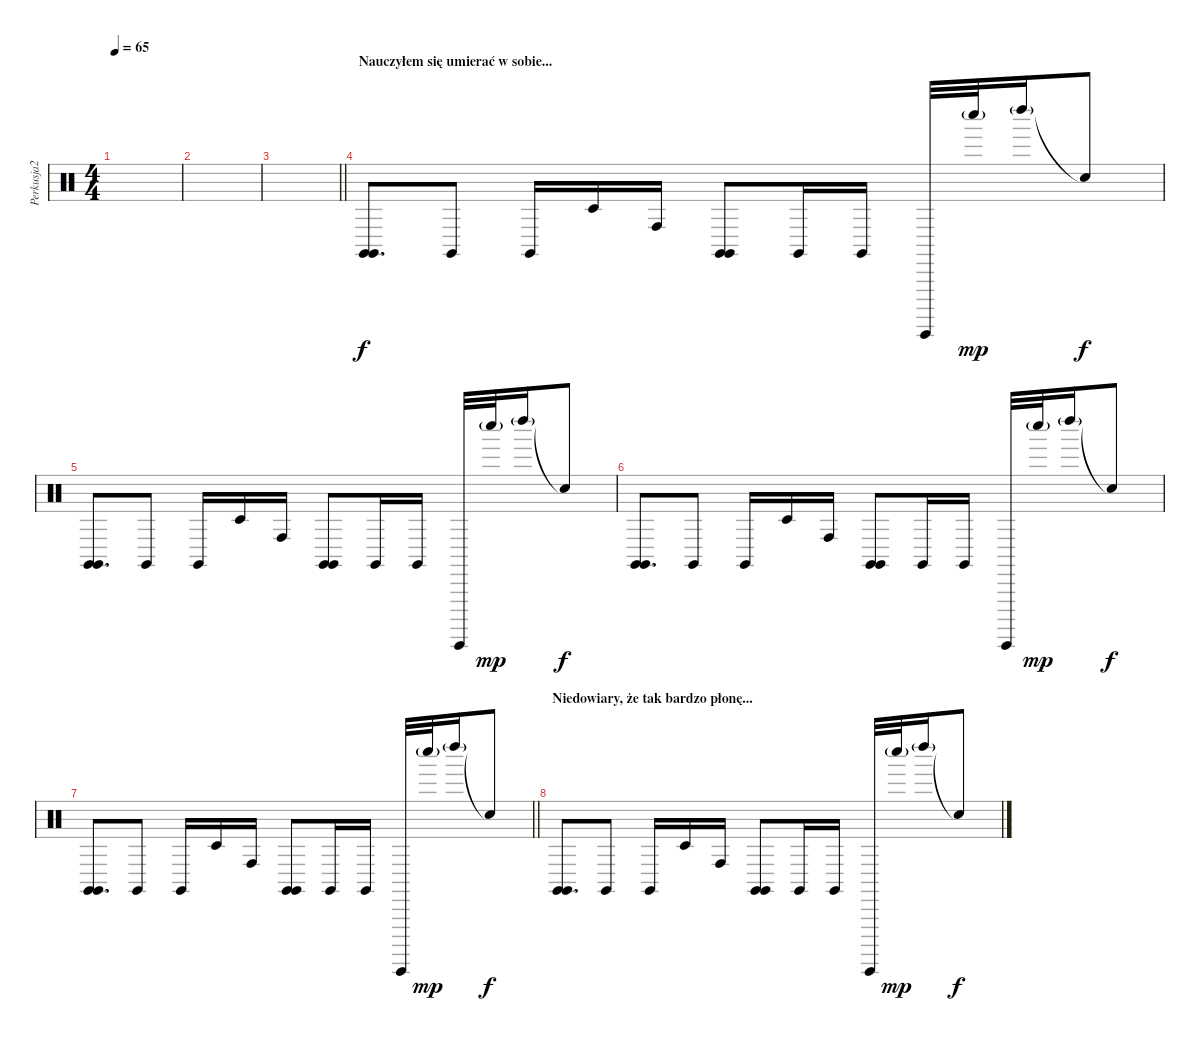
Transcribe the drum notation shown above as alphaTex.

\track ("Perkusja2" "Perkusja2") {instrument percussion}
\staff {score}
\articulation defaults
\ts (4 4)
\tempo 65
\clef neutral
\ks c
|
|
\barLineRight lightlight
|
\section ("" "Nauczyłem się umierać w sobie...")
("Claves (hit)" "Claves (hit)").8{d} "Claves (hit)".8 "Claves (hit)".16 "Timbale low (hit)".16 "Conga high (hit)".16 ("Claves (hit)" "Claves (hit)").8 "Claves (hit)".16 "Claves (hit)".16 "Guiro (hit)".32 "Whistle low (hit)"{g}.32{dy mp} "Left Maraca (hit)"{g}.16 "Snare (hit)"{t}.8{dy f} |
("Claves (hit)" "Claves (hit)").8{d} "Claves (hit)".8 "Claves (hit)".16 "Timbale low (hit)".16 "Conga high (hit)".16 ("Claves (hit)" "Claves (hit)").8 "Claves (hit)".16 "Claves (hit)".16 "Guiro (hit)".32 "Whistle low (hit)"{g}.32{dy mp} "Left Maraca (hit)"{g}.16 "Snare (hit)"{t}.8{dy f} |
("Claves (hit)" "Claves (hit)").8{d} "Claves (hit)".8 "Claves (hit)".16 "Timbale low (hit)".16 "Conga high (hit)".16 ("Claves (hit)" "Claves (hit)").8 "Claves (hit)".16 "Claves (hit)".16 "Guiro (hit)".32 "Whistle low (hit)"{g}.32{dy mp} "Left Maraca (hit)"{g}.16 "Snare (hit)"{t}.8{dy f} |
\barLineRight lightlight
("Claves (hit)" "Claves (hit)").8{d} "Claves (hit)".8 "Claves (hit)".16 "Timbale low (hit)".16 "Conga high (hit)".16 ("Claves (hit)" "Claves (hit)").8 "Claves (hit)".16 "Claves (hit)".16 "Guiro (hit)".32 "Whistle low (hit)"{g}.32{dy mp} "Left Maraca (hit)"{g}.16 "Snare (hit)"{t}.8{dy f} |
\section ("" "Niedowiary, że tak bardzo płonę...")
("Claves (hit)" "Claves (hit)").8{d} "Claves (hit)".8 "Claves (hit)".16 "Timbale low (hit)".16 "Conga high (hit)".16 ("Claves (hit)" "Claves (hit)").8 "Claves (hit)".16 "Claves (hit)".16 "Guiro (hit)".32 "Whistle low (hit)"{g}.32{dy mp} "Left Maraca (hit)"{g}.16 "Snare (hit)"{t}.8{dy f}
